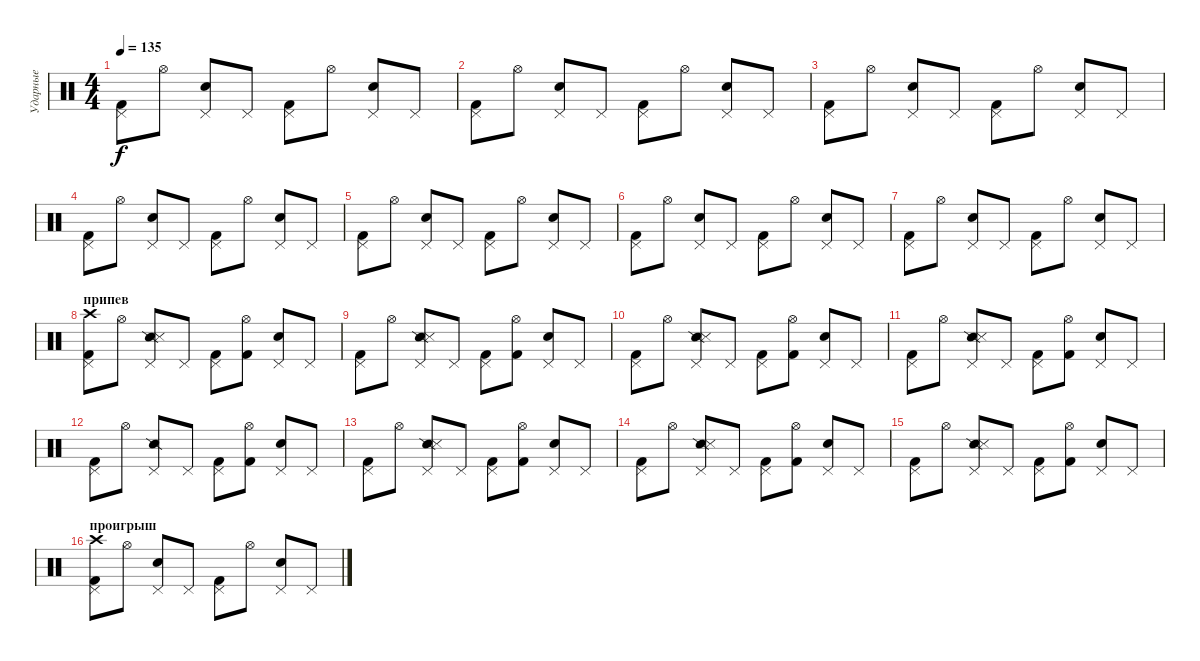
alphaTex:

\track ("Ударные" "Ударные") {instrument percussion}
\staff {score}
\articulation defaults
\ts (4 4)
\tempo 135
\clef neutral
\ks c
("Pedal Hi-Hat (hit)" "Kick (hit) 2").8{dy f} "Hi-Hat (open)".8 ("Pedal Hi-Hat (hit)" "Snare (hit) 2").8 "Pedal Hi-Hat (hit)".8 ("Pedal Hi-Hat (hit)" "Kick (hit) 2").8 "Hi-Hat (open)".8 ("Pedal Hi-Hat (hit)" "Snare (hit) 2").8 "Pedal Hi-Hat (hit)".8 |
("Pedal Hi-Hat (hit)" "Kick (hit) 2").8 "Hi-Hat (open)".8 ("Pedal Hi-Hat (hit)" "Snare (hit) 2").8 "Pedal Hi-Hat (hit)".8 ("Pedal Hi-Hat (hit)" "Kick (hit) 2").8 "Hi-Hat (open)".8 ("Pedal Hi-Hat (hit)" "Snare (hit) 2").8 "Pedal Hi-Hat (hit)".8 |
("Pedal Hi-Hat (hit)" "Kick (hit) 2").8 "Hi-Hat (open)".8 ("Pedal Hi-Hat (hit)" "Snare (hit) 2").8 "Pedal Hi-Hat (hit)".8 ("Pedal Hi-Hat (hit)" "Kick (hit) 2").8 "Hi-Hat (open)".8 ("Pedal Hi-Hat (hit)" "Snare (hit) 2").8 "Pedal Hi-Hat (hit)".8 |
("Pedal Hi-Hat (hit)" "Kick (hit) 2").8 "Hi-Hat (open)".8 ("Pedal Hi-Hat (hit)" "Snare (hit) 2").8 "Pedal Hi-Hat (hit)".8 ("Pedal Hi-Hat (hit)" "Kick (hit) 2").8 "Hi-Hat (open)".8 ("Pedal Hi-Hat (hit)" "Snare (hit) 2").8 "Pedal Hi-Hat (hit)".8 |
("Pedal Hi-Hat (hit)" "Kick (hit) 2").8 "Hi-Hat (open)".8 ("Pedal Hi-Hat (hit)" "Snare (hit) 2").8 "Pedal Hi-Hat (hit)".8 ("Pedal Hi-Hat (hit)" "Kick (hit) 2").8 "Hi-Hat (open)".8 ("Pedal Hi-Hat (hit)" "Snare (hit) 2").8 "Pedal Hi-Hat (hit)".8 |
("Pedal Hi-Hat (hit)" "Kick (hit) 2").8 "Hi-Hat (open)".8 ("Pedal Hi-Hat (hit)" "Snare (hit) 2").8 "Pedal Hi-Hat (hit)".8 ("Pedal Hi-Hat (hit)" "Kick (hit) 2").8 "Hi-Hat (open)".8 ("Pedal Hi-Hat (hit)" "Snare (hit) 2").8 "Pedal Hi-Hat (hit)".8 |
("Pedal Hi-Hat (hit)" "Kick (hit) 2").8 "Hi-Hat (open)".8 ("Pedal Hi-Hat (hit)" "Snare (hit) 2").8 "Pedal Hi-Hat (hit)".8 ("Pedal Hi-Hat (hit)" "Kick (hit) 2").8 "Hi-Hat (open)".8 ("Pedal Hi-Hat (hit)" "Snare (hit) 2").8 "Pedal Hi-Hat (hit)".8 |
\section ("" "припев")
("Pedal Hi-Hat (hit)" "Kick (hit) 2" "Crash high (hit)").8 "Hi-Hat (open)".8 ("Pedal Hi-Hat (hit)" "Snare (side stick) 2" "Snare (side stick) 3").8 "Pedal Hi-Hat (hit)".8 ("Pedal Hi-Hat (hit)" "Kick (hit) 2").8 ("Hi-Hat (open)" "Kick (hit) 2").8 ("Pedal Hi-Hat (hit)" "Snare (hit) 2").8 "Pedal Hi-Hat (hit)".8 |
("Pedal Hi-Hat (hit)" "Kick (hit) 2").8 "Hi-Hat (open)".8 ("Pedal Hi-Hat (hit)" "Snare (side stick) 2" "Snare (side stick) 3").8 "Pedal Hi-Hat (hit)".8 ("Pedal Hi-Hat (hit)" "Kick (hit) 2").8 ("Hi-Hat (open)" "Kick (hit) 2").8 ("Pedal Hi-Hat (hit)" "Snare (hit) 2").8 "Pedal Hi-Hat (hit)".8 |
("Pedal Hi-Hat (hit)" "Kick (hit) 2").8 "Hi-Hat (open)".8 ("Pedal Hi-Hat (hit)" "Snare (side stick) 2" "Snare (side stick) 3").8 "Pedal Hi-Hat (hit)".8 ("Pedal Hi-Hat (hit)" "Kick (hit) 2").8 ("Hi-Hat (open)" "Kick (hit) 2").8 ("Pedal Hi-Hat (hit)" "Snare (hit) 2").8 "Pedal Hi-Hat (hit)".8 |
("Pedal Hi-Hat (hit)" "Kick (hit) 2").8 "Hi-Hat (open)".8 ("Pedal Hi-Hat (hit)" "Snare (side stick) 2" "Snare (side stick) 3").8 "Pedal Hi-Hat (hit)".8 ("Pedal Hi-Hat (hit)" "Kick (hit) 2").8 ("Hi-Hat (open)" "Kick (hit) 2").8 ("Pedal Hi-Hat (hit)" "Snare (hit) 2").8 "Pedal Hi-Hat (hit)".8 |
("Pedal Hi-Hat (hit)" "Kick (hit) 2").8 "Hi-Hat (open)".8 ("Pedal Hi-Hat (hit)" "Snare (side stick) 2").8 "Pedal Hi-Hat (hit)".8 ("Pedal Hi-Hat (hit)" "Kick (hit) 2").8 ("Hi-Hat (open)" "Kick (hit) 2").8 ("Pedal Hi-Hat (hit)" "Snare (hit) 2").8 "Pedal Hi-Hat (hit)".8 |
("Pedal Hi-Hat (hit)" "Kick (hit) 2").8 "Hi-Hat (open)".8 ("Pedal Hi-Hat (hit)" "Snare (side stick) 2" "Snare (side stick) 3").8 "Pedal Hi-Hat (hit)".8 ("Pedal Hi-Hat (hit)" "Kick (hit) 2").8 ("Hi-Hat (open)" "Kick (hit) 2").8 ("Pedal Hi-Hat (hit)" "Snare (hit) 2").8 "Pedal Hi-Hat (hit)".8 |
("Pedal Hi-Hat (hit)" "Kick (hit) 2").8 "Hi-Hat (open)".8 ("Pedal Hi-Hat (hit)" "Snare (side stick) 2" "Snare (side stick) 3").8 "Pedal Hi-Hat (hit)".8 ("Pedal Hi-Hat (hit)" "Kick (hit) 2").8 ("Hi-Hat (open)" "Kick (hit) 2").8 ("Pedal Hi-Hat (hit)" "Snare (hit) 2").8 "Pedal Hi-Hat (hit)".8 |
("Pedal Hi-Hat (hit)" "Kick (hit) 2").8 "Hi-Hat (open)".8 ("Pedal Hi-Hat (hit)" "Snare (side stick) 2" "Snare (side stick) 3").8 "Pedal Hi-Hat (hit)".8 ("Pedal Hi-Hat (hit)" "Kick (hit) 2").8 ("Hi-Hat (open)" "Kick (hit) 2").8 ("Pedal Hi-Hat (hit)" "Snare (hit) 2").8 "Pedal Hi-Hat (hit)".8 |
\section ("" "проигрыш")
("Pedal Hi-Hat (hit)" "Kick (hit) 2" "Crash high (hit)").8 "Hi-Hat (open)".8 ("Pedal Hi-Hat (hit)" "Snare (hit) 2").8 "Pedal Hi-Hat (hit)".8 ("Pedal Hi-Hat (hit)" "Kick (hit) 2").8 "Hi-Hat (open)".8 ("Pedal Hi-Hat (hit)" "Snare (hit) 2").8 "Pedal Hi-Hat (hit)".8
